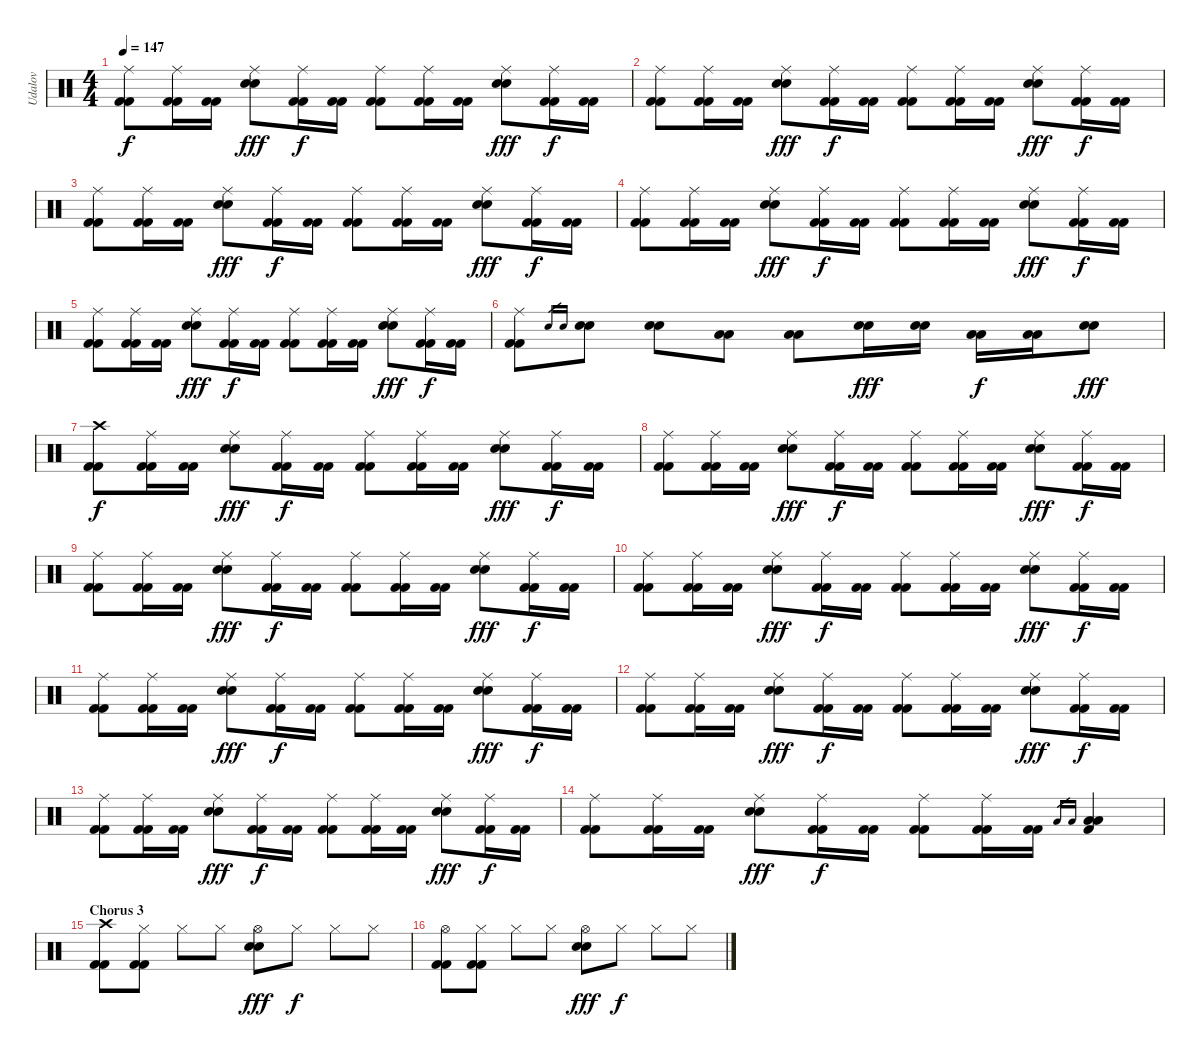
\track ("Udalov" "Udalov") {instrument percussion}
\staff {score}
\articulation defaults
\ts (4 4)
\tempo 147
\clef neutral
\ks c
("Ride (middle)" "Kick (hit) 2" "Kick (hit) 2").8{dy f} ("Ride (middle)" "Kick (hit) 2" "Kick (hit) 2").16 ("Kick (hit) 2" "Kick (hit) 2").16 ("Ride (middle)" "Electric Snare (hit)" "Electric Snare (hit)").8{dy fff} ("Ride (middle)" "Kick (hit) 2" "Kick (hit) 2").16{dy f} ("Kick (hit) 2" "Kick (hit) 2").16 ("Ride (middle)" "Kick (hit) 2" "Kick (hit) 2").8 ("Ride (middle)" "Kick (hit) 2" "Kick (hit) 2").16 ("Kick (hit) 2" "Kick (hit) 2").16 ("Ride (middle)" "Electric Snare (hit)" "Electric Snare (hit)").8{dy fff} ("Ride (middle)" "Kick (hit) 2" "Kick (hit) 2").16{dy f} ("Kick (hit) 2" "Kick (hit) 2").16 |
("Ride (middle)" "Kick (hit) 2" "Kick (hit) 2").8 ("Ride (middle)" "Kick (hit) 2" "Kick (hit) 2").16 ("Kick (hit) 2" "Kick (hit) 2").16 ("Ride (middle)" "Electric Snare (hit)" "Electric Snare (hit)").8{dy fff} ("Ride (middle)" "Kick (hit) 2" "Kick (hit) 2").16{dy f} ("Kick (hit) 2" "Kick (hit) 2").16 ("Ride (middle)" "Kick (hit) 2" "Kick (hit) 2").8 ("Ride (middle)" "Kick (hit) 2" "Kick (hit) 2").16 ("Kick (hit) 2" "Kick (hit) 2").16 ("Ride (middle)" "Electric Snare (hit)" "Electric Snare (hit)").8{dy fff} ("Ride (middle)" "Kick (hit) 2" "Kick (hit) 2").16{dy f} ("Kick (hit) 2" "Kick (hit) 2").16 |
("Ride (middle)" "Kick (hit) 2" "Kick (hit) 2").8 ("Ride (middle)" "Kick (hit) 2" "Kick (hit) 2").16 ("Kick (hit) 2" "Kick (hit) 2").16 ("Ride (middle)" "Electric Snare (hit)" "Electric Snare (hit)").8{dy fff} ("Ride (middle)" "Kick (hit) 2" "Kick (hit) 2").16{dy f} ("Kick (hit) 2" "Kick (hit) 2").16 ("Ride (middle)" "Kick (hit) 2" "Kick (hit) 2").8 ("Ride (middle)" "Kick (hit) 2" "Kick (hit) 2").16 ("Kick (hit) 2" "Kick (hit) 2").16 ("Ride (middle)" "Electric Snare (hit)" "Electric Snare (hit)").8{dy fff} ("Ride (middle)" "Kick (hit) 2" "Kick (hit) 2").16{dy f} ("Kick (hit) 2" "Kick (hit) 2").16 |
("Ride (middle)" "Kick (hit) 2" "Kick (hit) 2").8 ("Ride (middle)" "Kick (hit) 2" "Kick (hit) 2").16 ("Kick (hit) 2" "Kick (hit) 2").16 ("Ride (middle)" "Electric Snare (hit)" "Electric Snare (hit)").8{dy fff} ("Ride (middle)" "Kick (hit) 2" "Kick (hit) 2").16{dy f} ("Kick (hit) 2" "Kick (hit) 2").16 ("Ride (middle)" "Kick (hit) 2" "Kick (hit) 2").8 ("Ride (middle)" "Kick (hit) 2" "Kick (hit) 2").16 ("Kick (hit) 2" "Kick (hit) 2").16 ("Ride (middle)" "Electric Snare (hit)" "Electric Snare (hit)").8{dy fff} ("Ride (middle)" "Kick (hit) 2" "Kick (hit) 2").16{dy f} ("Kick (hit) 2" "Kick (hit) 2").16 |
("Ride (middle)" "Kick (hit) 2" "Kick (hit) 2").8 ("Ride (middle)" "Kick (hit) 2" "Kick (hit) 2").16 ("Kick (hit) 2" "Kick (hit) 2").16 ("Ride (middle)" "Electric Snare (hit)" "Electric Snare (hit)").8{dy fff} ("Ride (middle)" "Kick (hit) 2" "Kick (hit) 2").16{dy f} ("Kick (hit) 2" "Kick (hit) 2").16 ("Ride (middle)" "Kick (hit) 2" "Kick (hit) 2").8 ("Ride (middle)" "Kick (hit) 2" "Kick (hit) 2").16 ("Kick (hit) 2" "Kick (hit) 2").16 ("Ride (middle)" "Electric Snare (hit)" "Electric Snare (hit)").8{dy fff} ("Ride (middle)" "Kick (hit) 2" "Kick (hit) 2").16{dy f} ("Kick (hit) 2" "Kick (hit) 2").16 |
("Ride (middle)" "Kick (hit) 2" "Kick (hit) 2").8 "Electric Snare (hit)".16{gr} "Electric Snare (hit)".16{gr} ("Electric Snare (hit)" "Electric Snare (hit)").8 ("Electric Snare (hit)" "Electric Snare (hit)").8 ("Low Tom (hit)" "Low Tom (hit)").8 ("Low Tom (hit)" "Low Tom (hit)").8 ("Electric Snare (hit)" "Electric Snare (hit)").16{dy fff} ("Electric Snare (hit)" "Electric Snare (hit)").16 ("Low Tom (hit)" "Low Tom (hit)").16{dy f} ("Low Tom (hit)" "Low Tom (hit)").16 ("Electric Snare (hit)" "Electric Snare (hit)").8{dy fff} |
("Crash high (hit)" "Kick (hit) 2" "Kick (hit) 2").8{dy f} ("Ride (middle)" "Kick (hit) 2" "Kick (hit) 2").16 ("Kick (hit) 2" "Kick (hit) 2").16 ("Ride (middle)" "Electric Snare (hit)" "Electric Snare (hit)").8{dy fff} ("Ride (middle)" "Kick (hit) 2" "Kick (hit) 2").16{dy f} ("Kick (hit) 2" "Kick (hit) 2").16 ("Ride (middle)" "Kick (hit) 2" "Kick (hit) 2").8 ("Ride (middle)" "Kick (hit) 2" "Kick (hit) 2").16 ("Kick (hit) 2" "Kick (hit) 2").16 ("Ride (middle)" "Electric Snare (hit)" "Electric Snare (hit)").8{dy fff} ("Ride (middle)" "Kick (hit) 2" "Kick (hit) 2").16{dy f} ("Kick (hit) 2" "Kick (hit) 2").16 |
("Ride (middle)" "Kick (hit) 2" "Kick (hit) 2").8 ("Ride (middle)" "Kick (hit) 2" "Kick (hit) 2").16 ("Kick (hit) 2" "Kick (hit) 2").16 ("Ride (middle)" "Electric Snare (hit)" "Electric Snare (hit)").8{dy fff} ("Ride (middle)" "Kick (hit) 2" "Kick (hit) 2").16{dy f} ("Kick (hit) 2" "Kick (hit) 2").16 ("Ride (middle)" "Kick (hit) 2" "Kick (hit) 2").8 ("Ride (middle)" "Kick (hit) 2" "Kick (hit) 2").16 ("Kick (hit) 2" "Kick (hit) 2").16 ("Ride (middle)" "Electric Snare (hit)" "Electric Snare (hit)").8{dy fff} ("Ride (middle)" "Kick (hit) 2" "Kick (hit) 2").16{dy f} ("Kick (hit) 2" "Kick (hit) 2").16 |
("Ride (middle)" "Kick (hit) 2" "Kick (hit) 2").8 ("Ride (middle)" "Kick (hit) 2" "Kick (hit) 2").16 ("Kick (hit) 2" "Kick (hit) 2").16 ("Ride (middle)" "Electric Snare (hit)" "Electric Snare (hit)").8{dy fff} ("Ride (middle)" "Kick (hit) 2" "Kick (hit) 2").16{dy f} ("Kick (hit) 2" "Kick (hit) 2").16 ("Ride (middle)" "Kick (hit) 2" "Kick (hit) 2").8 ("Ride (middle)" "Kick (hit) 2" "Kick (hit) 2").16 ("Kick (hit) 2" "Kick (hit) 2").16 ("Ride (middle)" "Electric Snare (hit)" "Electric Snare (hit)").8{dy fff} ("Ride (middle)" "Kick (hit) 2" "Kick (hit) 2").16{dy f} ("Kick (hit) 2" "Kick (hit) 2").16 |
("Ride (middle)" "Kick (hit) 2" "Kick (hit) 2").8 ("Ride (middle)" "Kick (hit) 2" "Kick (hit) 2").16 ("Kick (hit) 2" "Kick (hit) 2").16 ("Ride (middle)" "Electric Snare (hit)" "Electric Snare (hit)").8{dy fff} ("Ride (middle)" "Kick (hit) 2" "Kick (hit) 2").16{dy f} ("Kick (hit) 2" "Kick (hit) 2").16 ("Ride (middle)" "Kick (hit) 2" "Kick (hit) 2").8 ("Ride (middle)" "Kick (hit) 2" "Kick (hit) 2").16 ("Kick (hit) 2" "Kick (hit) 2").16 ("Ride (middle)" "Electric Snare (hit)" "Electric Snare (hit)").8{dy fff} ("Ride (middle)" "Kick (hit) 2" "Kick (hit) 2").16{dy f} ("Kick (hit) 2" "Kick (hit) 2").16 |
("Ride (middle)" "Kick (hit) 2" "Kick (hit) 2").8 ("Ride (middle)" "Kick (hit) 2" "Kick (hit) 2").16 ("Kick (hit) 2" "Kick (hit) 2").16 ("Ride (middle)" "Electric Snare (hit)" "Electric Snare (hit)").8{dy fff} ("Ride (middle)" "Kick (hit) 2" "Kick (hit) 2").16{dy f} ("Kick (hit) 2" "Kick (hit) 2").16 ("Ride (middle)" "Kick (hit) 2" "Kick (hit) 2").8 ("Ride (middle)" "Kick (hit) 2" "Kick (hit) 2").16 ("Kick (hit) 2" "Kick (hit) 2").16 ("Ride (middle)" "Electric Snare (hit)" "Electric Snare (hit)").8{dy fff} ("Ride (middle)" "Kick (hit) 2" "Kick (hit) 2").16{dy f} ("Kick (hit) 2" "Kick (hit) 2").16 |
("Ride (middle)" "Kick (hit) 2" "Kick (hit) 2").8 ("Ride (middle)" "Kick (hit) 2" "Kick (hit) 2").16 ("Kick (hit) 2" "Kick (hit) 2").16 ("Ride (middle)" "Electric Snare (hit)" "Electric Snare (hit)").8{dy fff} ("Ride (middle)" "Kick (hit) 2" "Kick (hit) 2").16{dy f} ("Kick (hit) 2" "Kick (hit) 2").16 ("Ride (middle)" "Kick (hit) 2" "Kick (hit) 2").8 ("Ride (middle)" "Kick (hit) 2" "Kick (hit) 2").16 ("Kick (hit) 2" "Kick (hit) 2").16 ("Ride (middle)" "Electric Snare (hit)" "Electric Snare (hit)").8{dy fff} ("Ride (middle)" "Kick (hit) 2" "Kick (hit) 2").16{dy f} ("Kick (hit) 2" "Kick (hit) 2").16 |
("Ride (middle)" "Kick (hit) 2" "Kick (hit) 2").8 ("Ride (middle)" "Kick (hit) 2" "Kick (hit) 2").16 ("Kick (hit) 2" "Kick (hit) 2").16 ("Ride (middle)" "Electric Snare (hit)" "Electric Snare (hit)").8{dy fff} ("Ride (middle)" "Kick (hit) 2" "Kick (hit) 2").16{dy f} ("Kick (hit) 2" "Kick (hit) 2").16 ("Ride (middle)" "Kick (hit) 2" "Kick (hit) 2").8 ("Ride (middle)" "Kick (hit) 2" "Kick (hit) 2").16 ("Kick (hit) 2" "Kick (hit) 2").16 ("Ride (middle)" "Electric Snare (hit)" "Electric Snare (hit)").8{dy fff} ("Ride (middle)" "Kick (hit) 2" "Kick (hit) 2").16{dy f} ("Kick (hit) 2" "Kick (hit) 2").16 |
("Ride (middle)" "Kick (hit) 2" "Kick (hit) 2").8 ("Ride (middle)" "Kick (hit) 2" "Kick (hit) 2").16 ("Kick (hit) 2" "Kick (hit) 2").16 ("Ride (middle)" "Electric Snare (hit)" "Electric Snare (hit)").8{dy fff} ("Ride (middle)" "Kick (hit) 2" "Kick (hit) 2").16{dy f} ("Kick (hit) 2" "Kick (hit) 2").16 ("Ride (middle)" "Kick (hit) 2" "Kick (hit) 2").8 ("Ride (middle)" "Kick (hit) 2" "Kick (hit) 2").16 ("Kick (hit) 2" "Kick (hit) 2").16 "Low Tom (hit)".16{gr} "Low Tom (hit)".16{gr} ("Low Tom (hit)" "Low Tom (hit)" "Kick (hit) 2").4 |
\section ("" "Chorus 3")
("Crash high (hit)" "Kick (hit) 2" "Kick (hit) 2").8 ("Hi-Hat (closed)" "Kick (hit) 2" "Kick (hit) 2").8 "Hi-Hat (closed)".8 "Hi-Hat (closed)".8 ("Hi-Hat (open)" "Electric Snare (hit)" "Electric Snare (hit)").8{dy fff} "Hi-Hat (closed)".8{dy f} "Hi-Hat (closed)".8 "Hi-Hat (closed)".8 |
("Hi-Hat (open)" "Kick (hit) 2" "Kick (hit) 2").8 ("Hi-Hat (closed)" "Kick (hit) 2" "Kick (hit) 2").8 "Hi-Hat (closed)".8 "Hi-Hat (closed)".8 ("Hi-Hat (open)" "Electric Snare (hit)" "Electric Snare (hit)").8{dy fff} "Hi-Hat (closed)".8{dy f} "Hi-Hat (closed)".8 "Hi-Hat (closed)".8
